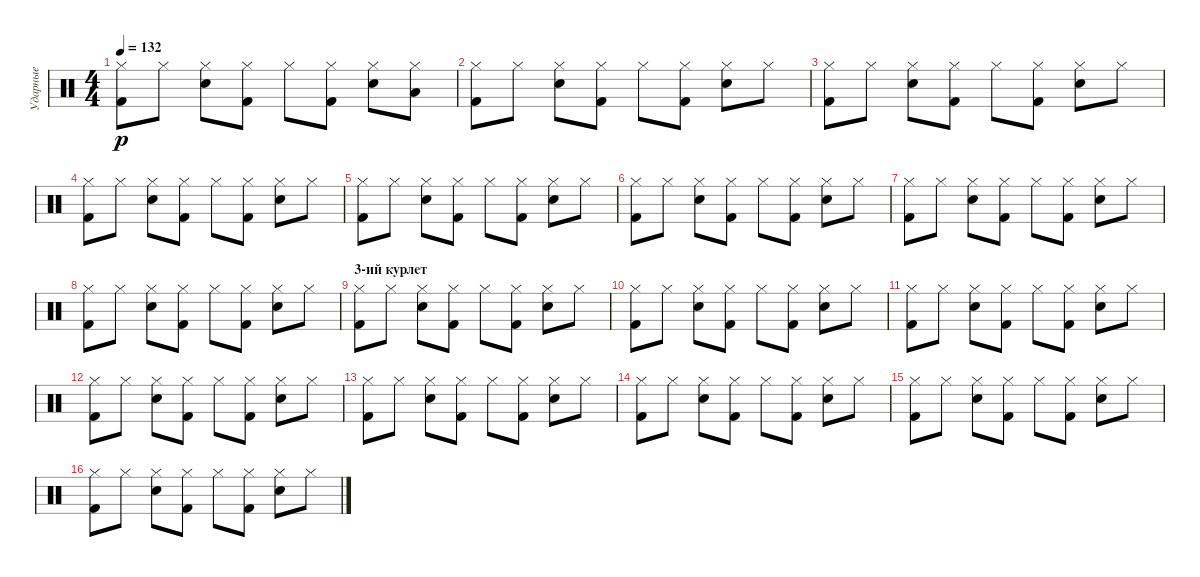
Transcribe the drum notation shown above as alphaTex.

\track ("Ударные" "Ударные") {instrument percussion}
\staff {score}
\articulation defaults
\ts (4 4)
\tempo 132
\clef neutral
\ks c
("Hi-Hat (closed)" "Kick (hit) 2").8{dy p} "Hi-Hat (closed)".8 ("Hi-Hat (closed)" "Snare (hit) 2").8 ("Hi-Hat (closed)" "Kick (hit) 2").8 "Hi-Hat (closed)".8 ("Hi-Hat (closed)" "Kick (hit) 2").8 ("Hi-Hat (closed)" "Snare (hit) 2").8 ("Hi-Hat (closed)" "Low Tom (hit)").8 |
("Hi-Hat (closed)" "Kick (hit) 2").8 "Hi-Hat (closed)".8 ("Hi-Hat (closed)" "Snare (hit) 2").8 ("Hi-Hat (closed)" "Kick (hit) 2").8 "Hi-Hat (closed)".8 ("Hi-Hat (closed)" "Kick (hit) 2").8 ("Hi-Hat (closed)" "Snare (hit) 2").8 "Hi-Hat (closed)".8 |
("Hi-Hat (closed)" "Kick (hit) 2").8 "Hi-Hat (closed)".8 ("Hi-Hat (closed)" "Snare (hit) 2").8 ("Hi-Hat (closed)" "Kick (hit) 2").8 "Hi-Hat (closed)".8 ("Hi-Hat (closed)" "Kick (hit) 2").8 ("Hi-Hat (closed)" "Snare (hit) 2").8 "Hi-Hat (closed)".8 |
("Hi-Hat (closed)" "Kick (hit) 2").8 "Hi-Hat (closed)".8 ("Hi-Hat (closed)" "Snare (hit) 2").8 ("Hi-Hat (closed)" "Kick (hit) 2").8 "Hi-Hat (closed)".8 ("Hi-Hat (closed)" "Kick (hit) 2").8 ("Hi-Hat (closed)" "Snare (hit) 2").8 "Hi-Hat (closed)".8 |
("Hi-Hat (closed)" "Kick (hit) 2").8 "Hi-Hat (closed)".8 ("Hi-Hat (closed)" "Snare (hit) 2").8 ("Hi-Hat (closed)" "Kick (hit) 2").8 "Hi-Hat (closed)".8 ("Hi-Hat (closed)" "Kick (hit) 2").8 ("Hi-Hat (closed)" "Snare (hit) 2").8 "Hi-Hat (closed)".8 |
("Hi-Hat (closed)" "Kick (hit) 2").8 "Hi-Hat (closed)".8 ("Hi-Hat (closed)" "Snare (hit) 2").8 ("Hi-Hat (closed)" "Kick (hit) 2").8 "Hi-Hat (closed)".8 ("Hi-Hat (closed)" "Kick (hit) 2").8 ("Hi-Hat (closed)" "Snare (hit) 2").8 "Hi-Hat (closed)".8 |
("Hi-Hat (closed)" "Kick (hit) 2").8 "Hi-Hat (closed)".8 ("Hi-Hat (closed)" "Snare (hit) 2").8 ("Hi-Hat (closed)" "Kick (hit) 2").8 "Hi-Hat (closed)".8 ("Hi-Hat (closed)" "Kick (hit) 2").8 ("Hi-Hat (closed)" "Snare (hit) 2").8 "Hi-Hat (closed)".8 |
("Hi-Hat (closed)" "Kick (hit) 2").8 "Hi-Hat (closed)".8 ("Hi-Hat (closed)" "Snare (hit) 2").8 ("Hi-Hat (closed)" "Kick (hit) 2").8 "Hi-Hat (closed)".8 ("Hi-Hat (closed)" "Kick (hit) 2").8 ("Hi-Hat (closed)" "Snare (hit) 2").8 "Hi-Hat (closed)".8 |
\section ("" "3-ий курлет")
("Hi-Hat (closed)" "Kick (hit) 2").8 "Hi-Hat (closed)".8 ("Hi-Hat (closed)" "Snare (hit) 2").8 ("Hi-Hat (closed)" "Kick (hit) 2").8 "Hi-Hat (closed)".8 ("Hi-Hat (closed)" "Kick (hit) 2").8 ("Hi-Hat (closed)" "Snare (hit) 2").8 "Hi-Hat (closed)".8 |
("Hi-Hat (closed)" "Kick (hit) 2").8 "Hi-Hat (closed)".8 ("Hi-Hat (closed)" "Snare (hit) 2").8 ("Hi-Hat (closed)" "Kick (hit) 2").8 "Hi-Hat (closed)".8 ("Hi-Hat (closed)" "Kick (hit) 2").8 ("Hi-Hat (closed)" "Snare (hit) 2").8 "Hi-Hat (closed)".8 |
("Hi-Hat (closed)" "Kick (hit) 2").8 "Hi-Hat (closed)".8 ("Hi-Hat (closed)" "Snare (hit) 2").8 ("Hi-Hat (closed)" "Kick (hit) 2").8 "Hi-Hat (closed)".8 ("Hi-Hat (closed)" "Kick (hit) 2").8 ("Hi-Hat (closed)" "Snare (hit) 2").8 "Hi-Hat (closed)".8 |
("Hi-Hat (closed)" "Kick (hit) 2").8 "Hi-Hat (closed)".8 ("Hi-Hat (closed)" "Snare (hit) 2").8 ("Hi-Hat (closed)" "Kick (hit) 2").8 "Hi-Hat (closed)".8 ("Hi-Hat (closed)" "Kick (hit) 2").8 ("Hi-Hat (closed)" "Snare (hit) 2").8 "Hi-Hat (closed)".8 |
("Hi-Hat (closed)" "Kick (hit) 2").8 "Hi-Hat (closed)".8 ("Hi-Hat (closed)" "Snare (hit) 2").8 ("Hi-Hat (closed)" "Kick (hit) 2").8 "Hi-Hat (closed)".8 ("Hi-Hat (closed)" "Kick (hit) 2").8 ("Hi-Hat (closed)" "Snare (hit) 2").8 "Hi-Hat (closed)".8 |
("Hi-Hat (closed)" "Kick (hit) 2").8 "Hi-Hat (closed)".8 ("Hi-Hat (closed)" "Snare (hit) 2").8 ("Hi-Hat (closed)" "Kick (hit) 2").8 "Hi-Hat (closed)".8 ("Hi-Hat (closed)" "Kick (hit) 2").8 ("Hi-Hat (closed)" "Snare (hit) 2").8 "Hi-Hat (closed)".8 |
("Hi-Hat (closed)" "Kick (hit) 2").8 "Hi-Hat (closed)".8 ("Hi-Hat (closed)" "Snare (hit) 2").8 ("Hi-Hat (closed)" "Kick (hit) 2").8 "Hi-Hat (closed)".8 ("Hi-Hat (closed)" "Kick (hit) 2").8 ("Hi-Hat (closed)" "Snare (hit) 2").8 "Hi-Hat (closed)".8 |
("Hi-Hat (closed)" "Kick (hit) 2").8 "Hi-Hat (closed)".8 ("Hi-Hat (closed)" "Snare (hit) 2").8 ("Hi-Hat (closed)" "Kick (hit) 2").8 "Hi-Hat (closed)".8 ("Hi-Hat (closed)" "Kick (hit) 2").8 ("Hi-Hat (closed)" "Snare (hit) 2").8 "Hi-Hat (closed)".8
